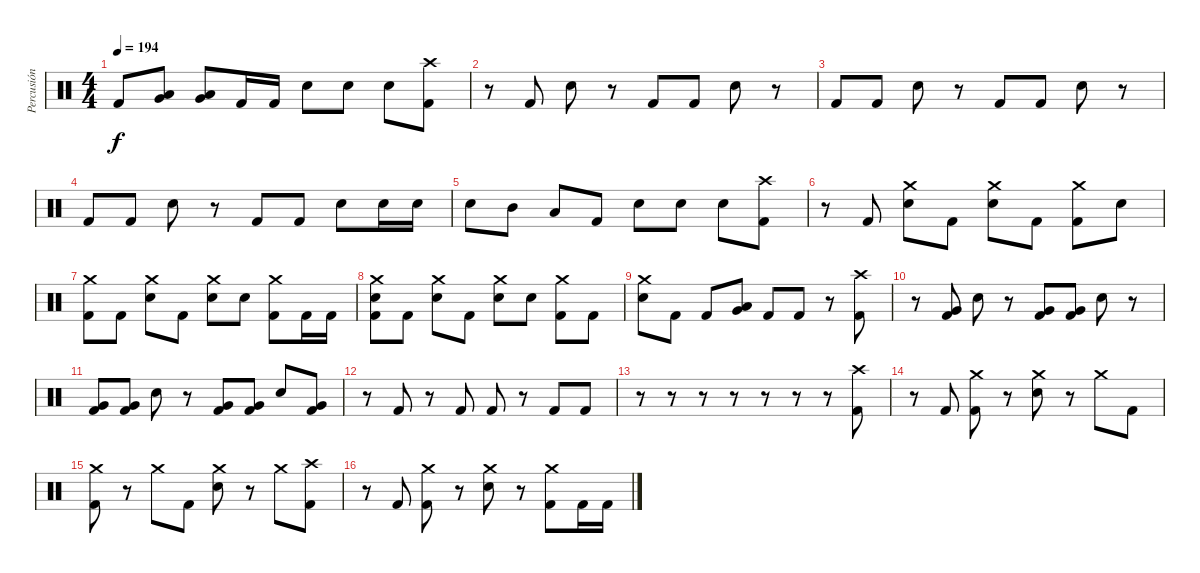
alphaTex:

\track ("Percusión" "Percusión") {instrument percussion}
\staff {score}
\articulation defaults
\ts (4 4)
\tempo 194
\clef neutral
\ks c "Kick (hit) 2".8{dy f}
("Very Low Tom (hit)" "Low Floor Tom (hit)").8 ("Very Low Tom (hit)" "Low Floor Tom (hit)").8 "Kick (hit) 2".16 "Kick (hit) 2".16 "Snare (hit) 2".8 "Snare (hit) 2".8 "Snare (hit) 2".8 ("Kick (hit) 2" "Crash high (hit)").8 |
r.8 "Kick (hit) 2".8 "Snare (hit) 2".8 r.8 "Kick (hit) 2".8 "Kick (hit) 2".8 "Snare (hit) 2".8 r.8 |
"Kick (hit) 2".8 "Kick (hit) 2".8 "Snare (hit) 2".8 r.8 "Kick (hit) 2".8 "Kick (hit) 2".8 "Snare (hit) 2".8 r.8 |
"Kick (hit) 2".8 "Kick (hit) 2".8 "Snare (hit) 2".8 r.8 "Kick (hit) 2".8 "Kick (hit) 2".8 "Snare (hit) 2".8 "Snare (hit) 2".16 "Snare (hit) 2".16 |
"Snare (hit) 2".8 "Mid Tom (hit)".8 "Low Tom (hit)".8 "Kick (hit) 2".8 "Snare (hit) 2".8 "Snare (hit) 2".8 "Snare (hit) 2".8 ("Kick (hit) 2" "Crash high (hit)").8 |
r.8 "Kick (hit) 2".8 ("Snare (hit) 2" "Crash medium (hit)").8 "Kick (hit) 2".8 ("Snare (hit) 2" "Crash medium (hit)").8 "Kick (hit) 2".8 ("Kick (hit) 2" "Crash medium (hit)").8 "Snare (hit) 2".8 |
("Kick (hit) 2" "Crash medium (hit)").8 "Kick (hit) 2".8 ("Snare (hit) 2" "Crash medium (hit)").8 "Kick (hit) 2".8 ("Snare (hit) 2" "Crash medium (hit)").8 "Snare (hit) 2".8 ("Kick (hit) 2" "Crash medium (hit)").8 "Kick (hit) 2".16 "Kick (hit) 2".16 |
("Kick (hit) 2" "Snare (hit) 2" "Crash medium (hit)").8 "Kick (hit) 2".8 ("Snare (hit) 2" "Crash medium (hit)").8 "Kick (hit) 2".8 ("Snare (hit) 2" "Crash medium (hit)").8 "Snare (hit) 2".8 ("Kick (hit) 2" "Crash medium (hit)").8 "Kick (hit) 2".8 |
("Snare (hit) 2" "Crash medium (hit)").8 "Kick (hit) 2".8 "Kick (hit) 2".8 ("Very Low Tom (hit)" "Low Floor Tom (hit)").8 "Kick (hit) 2".8 "Kick (hit) 2".8 r.8 ("Kick (hit) 2" "Crash high (hit)").8 |
r.8 ("Kick (hit) 2" "Very Low Tom (hit)").8 "Snare (hit) 2".8 r.8 ("Kick (hit) 2" "Very Low Tom (hit)").8 ("Kick (hit) 2" "Very Low Tom (hit)").8 "Snare (hit) 2".8 r.8 |
("Kick (hit) 2" "Very Low Tom (hit)").8 ("Kick (hit) 2" "Very Low Tom (hit)").8 "Snare (hit) 2".8 r.8 ("Kick (hit) 2" "Very Low Tom (hit)").8 ("Kick (hit) 2" "Very Low Tom (hit)").8 "Snare (hit) 2".8 ("Kick (hit) 2" "Very Low Tom (hit)").8 |
r.8 "Kick (hit) 2".8 r.8 "Kick (hit) 2".8 "Kick (hit) 2".8 r.8 "Kick (hit) 2".8 "Kick (hit) 2".8 |
r.8 r.8 r.8 r.8 r.8 r.8 r.8 ("Kick (hit) 2" "Crash high (hit)").8 |
r.8 "Kick (hit) 2".8 ("Kick (hit) 2" "Crash medium (hit)").8 r.8 ("Snare (hit) 2" "Crash medium (hit)").8 r.8 "Crash medium (hit)".8 "Kick (hit) 2".8 |
("Kick (hit) 2" "Crash medium (hit)").8 r.8 "Crash medium (hit)".8 "Kick (hit) 2".8 ("Snare (hit) 2" "Crash medium (hit)").8 r.8 "Crash medium (hit)".8 ("Kick (hit) 2" "Crash high (hit)").8 |
r.8 "Kick (hit) 2".8 ("Kick (hit) 2" "Crash medium (hit)").8 r.8 ("Snare (hit) 2" "Crash medium (hit)").8 r.8 ("Kick (hit) 2" "Crash medium (hit)").8 "Kick (hit) 2".16 "Kick (hit) 2".16
